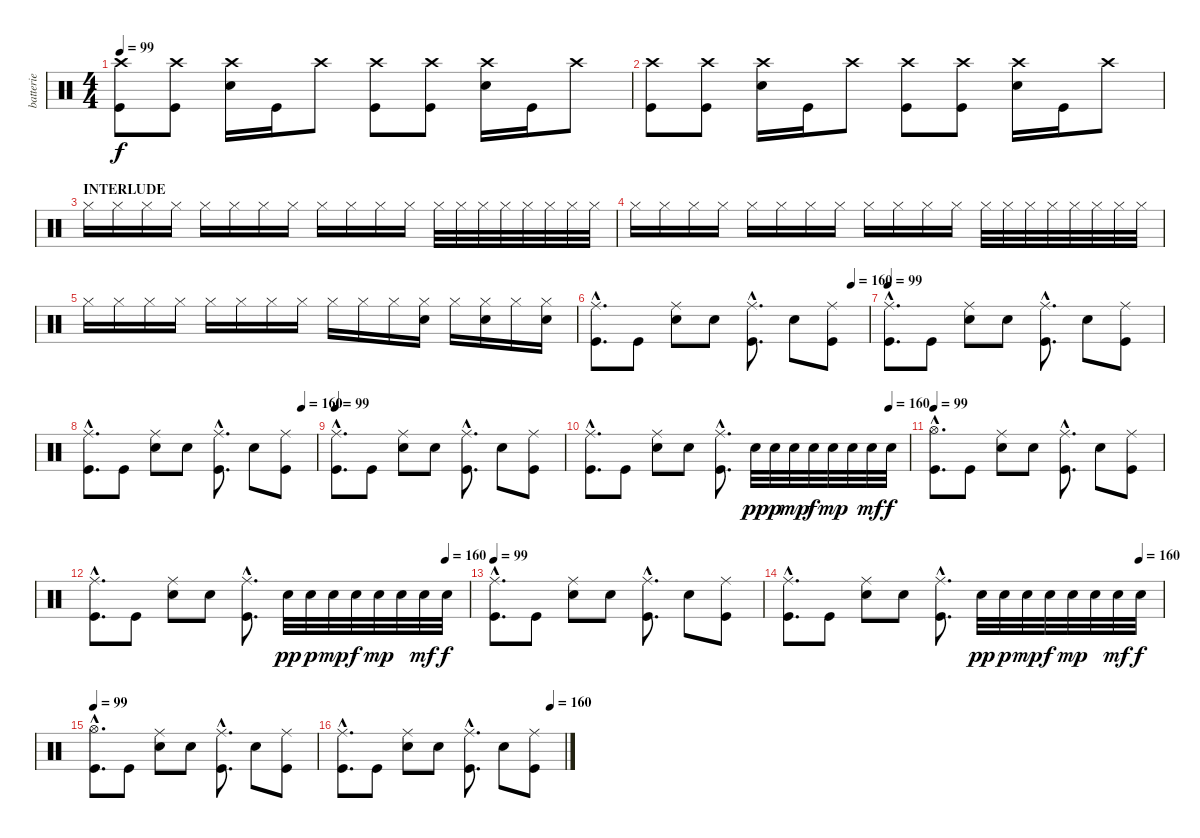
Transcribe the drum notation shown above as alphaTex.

\track ("batterie" "batterie") {instrument percussion}
\staff {score}
\articulation defaults
\ts (4 4)
\tempo 99
\clef neutral
\ks c
("Crash high (hit)" "Kick (hit)").8{dy f} ("Crash high (hit)" "Kick (hit)").8 ("Crash high (hit)" "Electric Snare (hit)").16 "Kick (hit)".16 "Crash high (hit)".8 ("Crash high (hit)" "Kick (hit)").8 ("Crash high (hit)" "Kick (hit)").8 ("Crash high (hit)" "Electric Snare (hit)").16 "Kick (hit)".16 "Crash high (hit)".8 |
("Crash high (hit)" "Kick (hit)").8 ("Crash high (hit)" "Kick (hit)").8 ("Crash high (hit)" "Electric Snare (hit)").16 "Kick (hit)".16 "Crash high (hit)".8 ("Crash high (hit)" "Kick (hit)").8 ("Crash high (hit)" "Kick (hit)").8 ("Crash high (hit)" "Electric Snare (hit)").16 "Kick (hit)".16 "Crash high (hit)".8 |
\section ("" "INTERLUDE")
"Hi-Hat (closed)".16{volume 7} "Hi-Hat (closed)".16 "Hi-Hat (closed)".16 "Hi-Hat (closed)".16 "Hi-Hat (closed)".16 "Hi-Hat (closed)".16 "Hi-Hat (closed)".16 "Hi-Hat (closed)".16 "Hi-Hat (closed)".16 "Hi-Hat (closed)".16 "Hi-Hat (closed)".16 "Hi-Hat (closed)".16 "Hi-Hat (closed)".32 "Hi-Hat (closed)".32 "Hi-Hat (closed)".32 "Hi-Hat (closed)".32 "Hi-Hat (closed)".32 "Hi-Hat (closed)".32 "Hi-Hat (closed)".32 "Hi-Hat (closed)".32 |
"Hi-Hat (closed)".16{volume 7} "Hi-Hat (closed)".16 "Hi-Hat (closed)".16 "Hi-Hat (closed)".16 "Hi-Hat (closed)".16 "Hi-Hat (closed)".16 "Hi-Hat (closed)".16 "Hi-Hat (closed)".16 "Hi-Hat (closed)".16 "Hi-Hat (closed)".16 "Hi-Hat (closed)".16 "Hi-Hat (closed)".16 "Hi-Hat (closed)".32 "Hi-Hat (closed)".32 "Hi-Hat (closed)".32 "Hi-Hat (closed)".32 "Hi-Hat (closed)".32 "Hi-Hat (closed)".32 "Hi-Hat (closed)".32 "Hi-Hat (closed)".32 |
"Hi-Hat (closed)".16{volume 13} "Hi-Hat (closed)".16 "Hi-Hat (closed)".16 "Hi-Hat (closed)".16 "Hi-Hat (closed)".16 "Hi-Hat (closed)".16 "Hi-Hat (closed)".16 "Hi-Hat (closed)".16 "Hi-Hat (closed)".16 "Hi-Hat (closed)".16 "Hi-Hat (closed)".16 ("Hi-Hat (closed)" "Electric Snare (hit)").16 "Hi-Hat (closed)".16 ("Hi-Hat (closed)" "Electric Snare (hit)").16 "Hi-Hat (closed)".16 ("Hi-Hat (closed)" "Snare (hit) 2").16 |
\tempo (160 0.9375)
("Ride (middle)"{hac} "Kick (hit)"{hac}).8{d} "Kick (hit)".8 ("Ride (middle)" "Electric Snare (hit)").8 "Electric Snare (hit)".8 ("Ride (middle)"{hac} "Kick (hit)"{hac}).8{d} "Electric Snare (hit)".8 ("Ride (middle)" "Kick (hit)").8 |
\tempo 99
("Ride (middle)"{hac} "Kick (hit)"{hac}).8{d} "Kick (hit)".8 ("Ride (middle)" "Electric Snare (hit)").8 "Electric Snare (hit)".8 ("Ride (middle)"{hac} "Kick (hit)"{hac}).8{d} "Electric Snare (hit)".8 ("Ride (middle)" "Kick (hit)").8 |
\tempo (160 0.9375)
("Ride (middle)"{hac} "Kick (hit)"{hac}).8{d} "Kick (hit)".8 ("Ride (middle)" "Electric Snare (hit)").8 "Electric Snare (hit)".8 ("Ride (middle)"{hac} "Kick (hit)"{hac}).8{d} "Electric Snare (hit)".8 ("Ride (middle)" "Kick (hit)").8 |
\tempo 99
("Ride (middle)"{hac} "Kick (hit)"{hac}).8{d} "Kick (hit)".8 ("Ride (middle)" "Electric Snare (hit)").8 "Electric Snare (hit)".8 ("Ride (middle)"{hac} "Kick (hit)"{hac}).8{d} "Electric Snare (hit)".8 ("Ride (middle)" "Kick (hit)").8 |
\tempo (160 0.9375)
("Ride (middle)"{hac} "Kick (hit)"{hac}).8{d} "Kick (hit)".8 ("Ride (middle)" "Electric Snare (hit)").8 "Electric Snare (hit)".8 ("Ride (middle)"{hac} "Kick (hit)"{hac}).8{d} "Electric Snare (hit)".32{dy pp} "Electric Snare (hit)".32{dy p} "Electric Snare (hit)".32{dy mp} "Electric Snare (hit)".32{dy f} "Electric Snare (hit)".32{dy mp} "Electric Snare (hit)".32 "Electric Snare (hit)".32{dy mf} "Electric Snare (hit)".32{dy f} |
\tempo 99
("Hi-Hat (open)"{hac} "Kick (hit)"{hac}).8{d} "Kick (hit)".8 ("Ride (middle)" "Electric Snare (hit)").8 "Electric Snare (hit)".8 ("Ride (middle)"{hac} "Kick (hit)"{hac}).8{d} "Electric Snare (hit)".8 ("Ride (middle)" "Kick (hit)").8 |
\tempo (160 0.9375)
("Ride (middle)"{hac} "Kick (hit)"{hac}).8{d} "Kick (hit)".8 ("Ride (middle)" "Electric Snare (hit)").8 "Electric Snare (hit)".8 ("Ride (middle)"{hac} "Kick (hit)"{hac}).8{d} "Electric Snare (hit)".32{dy pp} "Electric Snare (hit)".32{dy p} "Electric Snare (hit)".32{dy mp} "Electric Snare (hit)".32{dy f} "Electric Snare (hit)".32{dy mp} "Electric Snare (hit)".32 "Electric Snare (hit)".32{dy mf} "Electric Snare (hit)".32{dy f} |
\tempo 99
("Ride (middle)"{hac} "Kick (hit)"{hac}).8{d} "Kick (hit)".8 ("Ride (middle)" "Electric Snare (hit)").8 "Electric Snare (hit)".8 ("Ride (middle)"{hac} "Kick (hit)"{hac}).8{d} "Electric Snare (hit)".8 ("Ride (middle)" "Kick (hit)").8 |
\tempo (160 0.9375)
("Ride (middle)"{hac} "Kick (hit)"{hac}).8{d} "Kick (hit)".8 ("Ride (middle)" "Electric Snare (hit)").8 "Electric Snare (hit)".8 ("Ride (middle)"{hac} "Kick (hit)"{hac}).8{d} "Electric Snare (hit)".32{dy pp} "Electric Snare (hit)".32{dy p} "Electric Snare (hit)".32{dy mp} "Electric Snare (hit)".32{dy f} "Electric Snare (hit)".32{dy mp} "Electric Snare (hit)".32 "Electric Snare (hit)".32{dy mf} "Electric Snare (hit)".32{dy f} |
\tempo 99
("Hi-Hat (open)"{hac} "Kick (hit)"{hac}).8{d} "Kick (hit)".8 ("Ride (middle)" "Electric Snare (hit)").8 "Electric Snare (hit)".8 ("Ride (middle)"{hac} "Kick (hit)"{hac}).8{d} "Electric Snare (hit)".8 ("Ride (middle)" "Kick (hit)").8 |
\tempo (160 0.9375)
("Ride (middle)"{hac} "Kick (hit)"{hac}).8{d} "Kick (hit)".8 ("Ride (middle)" "Electric Snare (hit)").8 "Electric Snare (hit)".8 ("Ride (middle)"{hac} "Kick (hit)"{hac}).8{d} "Electric Snare (hit)".8 ("Ride (middle)" "Kick (hit)").8
